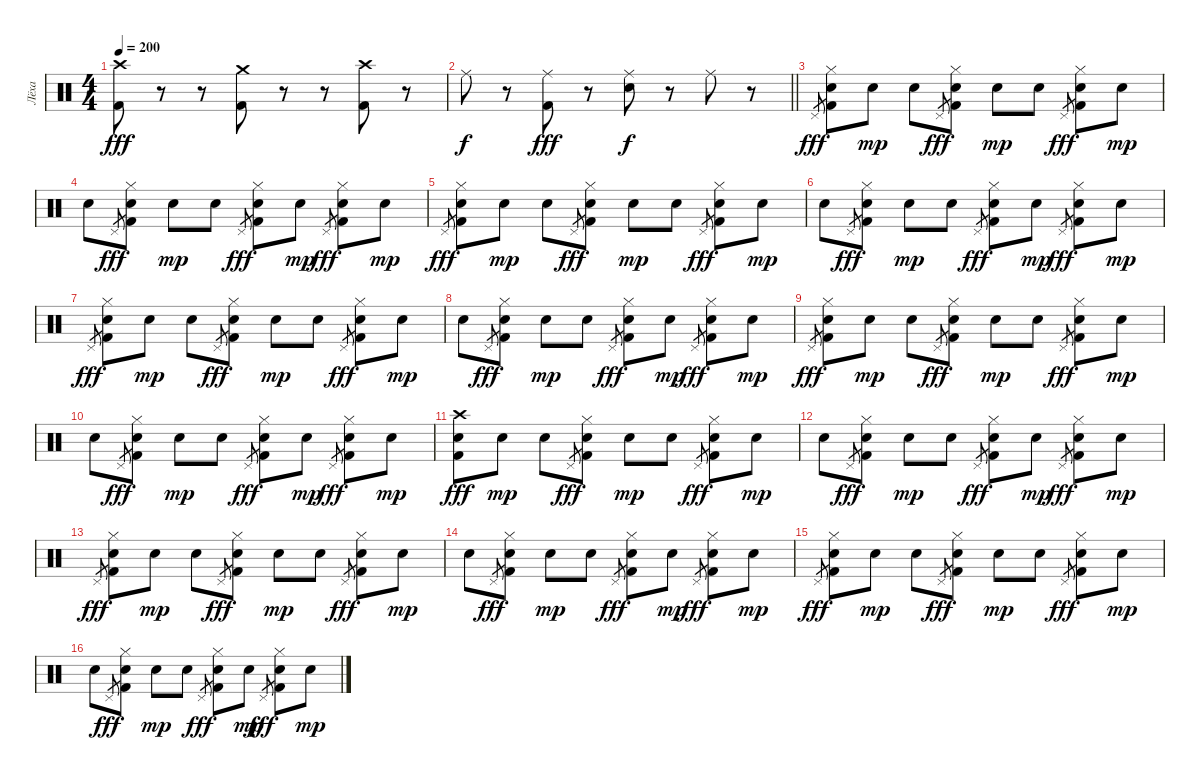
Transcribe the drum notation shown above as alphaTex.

\track ("Лёха" "Лёха") {instrument percussion}
\staff {score}
\articulation defaults
\ts (4 4)
\tempo 200
\clef neutral
\ks c
("Crash high (hit)" "Kick (hit) 2").8{dy fff} r.8 r.8 ("Crash medium (hit)" "Kick (hit) 2").8 r.8 r.8 ("Crash high (hit)" "Kick (hit) 2").8 r.8 |
\barLineRight lightlight "Ride (middle)".8{dy f}
r.8 ("Ride (middle)" "Kick (hit) 2").8{dy fff} r.8 ("Ride (middle)" "Electric Snare (hit)").8{dy f} r.8 "Ride (middle)".8 r.8 |
\section ("" "")
"Pedal Hi-Hat (hit)".8{gr dy fff} ("Hi-Hat (closed)" "Electric Snare (hit)" "Kick (hit) 2").8 "Electric Snare (hit)".8{dy mp} "Electric Snare (hit)".8 "Pedal Hi-Hat (hit)".8{gr dy fff} ("Hi-Hat (closed)" "Electric Snare (hit)" "Kick (hit) 2").8 "Electric Snare (hit)".8{dy mp} "Electric Snare (hit)".8 "Pedal Hi-Hat (hit)".8{gr dy fff} ("Hi-Hat (closed)" "Electric Snare (hit)" "Kick (hit) 2").8 "Electric Snare (hit)".8{dy mp} |
"Electric Snare (hit)".8 "Pedal Hi-Hat (hit)".8{gr dy fff} ("Hi-Hat (closed)" "Electric Snare (hit)" "Kick (hit) 2").8 "Electric Snare (hit)".8{dy mp} "Electric Snare (hit)".8 "Pedal Hi-Hat (hit)".8{gr dy fff} ("Hi-Hat (closed)" "Electric Snare (hit)" "Kick (hit) 2").8 "Electric Snare (hit)".8{dy mp} "Pedal Hi-Hat (hit)".8{gr dy fff} ("Hi-Hat (closed)" "Electric Snare (hit)" "Kick (hit) 2").8 "Electric Snare (hit)".8{dy mp} |
"Pedal Hi-Hat (hit)".8{gr dy fff} ("Hi-Hat (closed)" "Electric Snare (hit)" "Kick (hit) 2").8 "Electric Snare (hit)".8{dy mp} "Electric Snare (hit)".8 "Pedal Hi-Hat (hit)".8{gr dy fff} ("Hi-Hat (closed)" "Electric Snare (hit)" "Kick (hit) 2").8 "Electric Snare (hit)".8{dy mp} "Electric Snare (hit)".8 "Pedal Hi-Hat (hit)".8{gr dy fff} ("Hi-Hat (closed)" "Electric Snare (hit)" "Kick (hit) 2").8 "Electric Snare (hit)".8{dy mp} |
"Electric Snare (hit)".8 "Pedal Hi-Hat (hit)".8{gr dy fff} ("Hi-Hat (closed)" "Electric Snare (hit)" "Kick (hit) 2").8 "Electric Snare (hit)".8{dy mp} "Electric Snare (hit)".8 "Pedal Hi-Hat (hit)".8{gr dy fff} ("Hi-Hat (closed)" "Electric Snare (hit)" "Kick (hit) 2").8 "Electric Snare (hit)".8{dy mp} "Pedal Hi-Hat (hit)".8{gr dy fff} ("Hi-Hat (closed)" "Electric Snare (hit)" "Kick (hit) 2").8 "Electric Snare (hit)".8{dy mp} |
"Pedal Hi-Hat (hit)".8{gr dy fff} ("Hi-Hat (closed)" "Electric Snare (hit)" "Kick (hit) 2").8 "Electric Snare (hit)".8{dy mp} "Electric Snare (hit)".8 "Pedal Hi-Hat (hit)".8{gr dy fff} ("Hi-Hat (closed)" "Electric Snare (hit)" "Kick (hit) 2").8 "Electric Snare (hit)".8{dy mp} "Electric Snare (hit)".8 "Pedal Hi-Hat (hit)".8{gr dy fff} ("Hi-Hat (closed)" "Electric Snare (hit)" "Kick (hit) 2").8 "Electric Snare (hit)".8{dy mp} |
"Electric Snare (hit)".8 "Pedal Hi-Hat (hit)".8{gr dy fff} ("Hi-Hat (closed)" "Electric Snare (hit)" "Kick (hit) 2").8 "Electric Snare (hit)".8{dy mp} "Electric Snare (hit)".8 "Pedal Hi-Hat (hit)".8{gr dy fff} ("Hi-Hat (closed)" "Electric Snare (hit)" "Kick (hit) 2").8 "Electric Snare (hit)".8{dy mp} "Pedal Hi-Hat (hit)".8{gr dy fff} ("Hi-Hat (closed)" "Electric Snare (hit)" "Kick (hit) 2").8 "Electric Snare (hit)".8{dy mp} |
"Pedal Hi-Hat (hit)".8{gr dy fff} ("Hi-Hat (closed)" "Electric Snare (hit)" "Kick (hit) 2").8 "Electric Snare (hit)".8{dy mp} "Electric Snare (hit)".8 "Pedal Hi-Hat (hit)".8{gr dy fff} ("Hi-Hat (closed)" "Electric Snare (hit)" "Kick (hit) 2").8 "Electric Snare (hit)".8{dy mp} "Electric Snare (hit)".8 "Pedal Hi-Hat (hit)".8{gr dy fff} ("Hi-Hat (closed)" "Electric Snare (hit)" "Kick (hit) 2").8 "Electric Snare (hit)".8{dy mp} |
"Electric Snare (hit)".8 "Pedal Hi-Hat (hit)".8{gr dy fff} ("Hi-Hat (closed)" "Electric Snare (hit)" "Kick (hit) 2").8 "Electric Snare (hit)".8{dy mp} "Electric Snare (hit)".8 "Pedal Hi-Hat (hit)".8{gr dy fff} ("Hi-Hat (closed)" "Electric Snare (hit)" "Kick (hit) 2").8 "Electric Snare (hit)".8{dy mp} "Pedal Hi-Hat (hit)".8{gr dy fff} ("Hi-Hat (closed)" "Electric Snare (hit)" "Kick (hit) 2").8 "Electric Snare (hit)".8{dy mp} |
("Crash high (hit)" "Electric Snare (hit)" "Kick (hit) 2").8{dy fff} "Electric Snare (hit)".8{dy mp} "Electric Snare (hit)".8 "Pedal Hi-Hat (hit)".8{gr dy fff} ("Hi-Hat (closed)" "Electric Snare (hit)" "Kick (hit) 2").8 "Electric Snare (hit)".8{dy mp} "Electric Snare (hit)".8 "Pedal Hi-Hat (hit)".8{gr dy fff} ("Hi-Hat (closed)" "Electric Snare (hit)" "Kick (hit) 2").8 "Electric Snare (hit)".8{dy mp} |
"Electric Snare (hit)".8 "Pedal Hi-Hat (hit)".8{gr dy fff} ("Hi-Hat (closed)" "Electric Snare (hit)" "Kick (hit) 2").8 "Electric Snare (hit)".8{dy mp} "Electric Snare (hit)".8 "Pedal Hi-Hat (hit)".8{gr dy fff} ("Hi-Hat (closed)" "Electric Snare (hit)" "Kick (hit) 2").8 "Electric Snare (hit)".8{dy mp} "Pedal Hi-Hat (hit)".8{gr dy fff} ("Hi-Hat (closed)" "Electric Snare (hit)" "Kick (hit) 2").8 "Electric Snare (hit)".8{dy mp} |
"Pedal Hi-Hat (hit)".8{gr dy fff} ("Hi-Hat (closed)" "Electric Snare (hit)" "Kick (hit) 2").8 "Electric Snare (hit)".8{dy mp} "Electric Snare (hit)".8 "Pedal Hi-Hat (hit)".8{gr dy fff} ("Hi-Hat (closed)" "Electric Snare (hit)" "Kick (hit) 2").8 "Electric Snare (hit)".8{dy mp} "Electric Snare (hit)".8 "Pedal Hi-Hat (hit)".8{gr dy fff} ("Hi-Hat (closed)" "Electric Snare (hit)" "Kick (hit) 2").8 "Electric Snare (hit)".8{dy mp} |
"Electric Snare (hit)".8 "Pedal Hi-Hat (hit)".8{gr dy fff} ("Hi-Hat (closed)" "Electric Snare (hit)" "Kick (hit) 2").8 "Electric Snare (hit)".8{dy mp} "Electric Snare (hit)".8 "Pedal Hi-Hat (hit)".8{gr dy fff} ("Hi-Hat (closed)" "Electric Snare (hit)" "Kick (hit) 2").8 "Electric Snare (hit)".8{dy mp} "Pedal Hi-Hat (hit)".8{gr dy fff} ("Hi-Hat (closed)" "Electric Snare (hit)" "Kick (hit) 2").8 "Electric Snare (hit)".8{dy mp} |
"Pedal Hi-Hat (hit)".8{gr dy fff} ("Hi-Hat (closed)" "Electric Snare (hit)" "Kick (hit) 2").8 "Electric Snare (hit)".8{dy mp} "Electric Snare (hit)".8 "Pedal Hi-Hat (hit)".8{gr dy fff} ("Hi-Hat (closed)" "Electric Snare (hit)" "Kick (hit) 2").8 "Electric Snare (hit)".8{dy mp} "Electric Snare (hit)".8 "Pedal Hi-Hat (hit)".8{gr dy fff} ("Hi-Hat (closed)" "Electric Snare (hit)" "Kick (hit) 2").8 "Electric Snare (hit)".8{dy mp} |
"Electric Snare (hit)".8 "Pedal Hi-Hat (hit)".8{gr dy fff} ("Hi-Hat (closed)" "Electric Snare (hit)" "Kick (hit) 2").8 "Electric Snare (hit)".8{dy mp} "Electric Snare (hit)".8 "Pedal Hi-Hat (hit)".8{gr dy fff} ("Hi-Hat (closed)" "Electric Snare (hit)" "Kick (hit) 2").8 "Electric Snare (hit)".8{dy mp} "Pedal Hi-Hat (hit)".8{gr dy fff} ("Hi-Hat (closed)" "Electric Snare (hit)" "Kick (hit) 2").8 "Electric Snare (hit)".8{dy mp}
